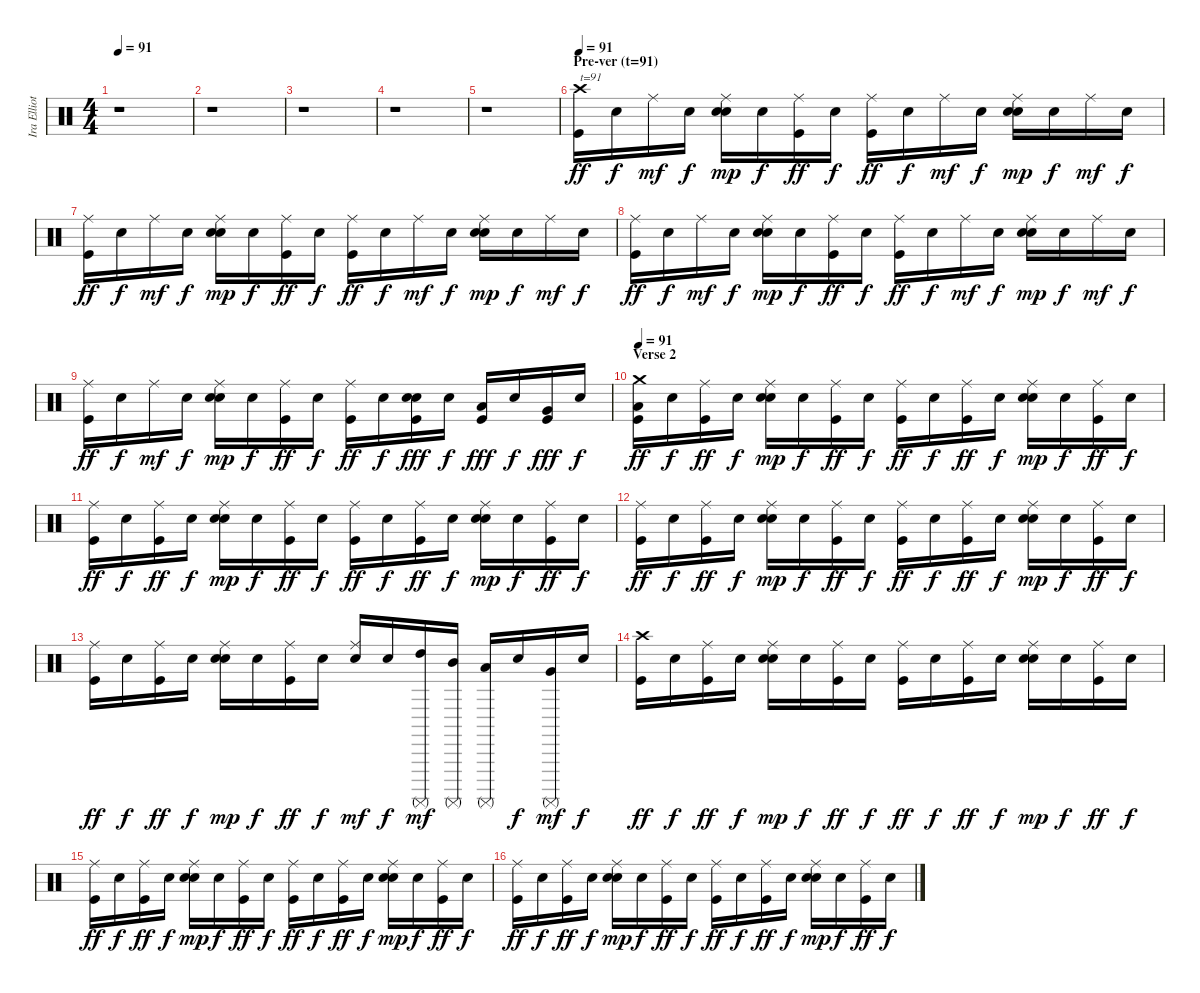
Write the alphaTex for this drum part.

\track ("Ira Elliot - Drums" "Ira Elliot") {instrument percussion}
\staff {score}
\articulation defaults
\ts (4 4)
\tempo 91
\clef neutral
\ks c
r.1{dy f} |
r.1 |
r.1 |
r.1 |
r.1 |
\section ("" "Pre-ver (t=91)")
\tempo 91
("Crash high (hit)" "Kick (hit)").16{txt "t=91" dy ff volume 16 balance 8} "Snare (hit)".16{dy f} "Ride (middle)".16{dy mf} "Snare (hit)".16{dy f} ("Ride (middle)" "Electric Snare (hit)" "Snare (hit) 2").16{dy mp} "Snare (hit)".16{dy f} ("Ride (middle)" "Kick (hit)").16{dy ff} "Snare (hit)".16{dy f} ("Ride (middle)" "Kick (hit)").16{dy ff} "Snare (hit)".16{dy f} "Ride (middle)".16{dy mf} "Snare (hit)".16{dy f} ("Ride (middle)" "Electric Snare (hit)" "Snare (hit) 2").16{dy mp} "Snare (hit)".16{dy f} "Ride (middle)".16{dy mf} "Snare (hit)".16{dy f} |
("Ride (middle)" "Kick (hit)").16{dy ff} "Snare (hit)".16{dy f} "Ride (middle)".16{dy mf} "Snare (hit)".16{dy f} ("Ride (middle)" "Electric Snare (hit)" "Snare (hit) 2").16{dy mp} "Snare (hit)".16{dy f} ("Ride (middle)" "Kick (hit)").16{dy ff} "Snare (hit)".16{dy f} ("Ride (middle)" "Kick (hit)").16{dy ff} "Snare (hit)".16{dy f} "Ride (middle)".16{dy mf} "Snare (hit)".16{dy f} ("Ride (middle)" "Electric Snare (hit)" "Snare (hit) 2").16{dy mp} "Snare (hit)".16{dy f} "Ride (middle)".16{dy mf} "Snare (hit)".16{dy f} |
("Ride (middle)" "Kick (hit)").16{dy ff} "Snare (hit)".16{dy f} "Ride (middle)".16{dy mf} "Snare (hit)".16{dy f} ("Ride (middle)" "Electric Snare (hit)" "Snare (hit) 2").16{dy mp} "Snare (hit)".16{dy f} ("Ride (middle)" "Kick (hit)").16{dy ff} "Snare (hit)".16{dy f} ("Ride (middle)" "Kick (hit)").16{dy ff} "Snare (hit)".16{dy f} "Ride (middle)".16{dy mf} "Snare (hit)".16{dy f} ("Ride (middle)" "Electric Snare (hit)" "Snare (hit) 2").16{dy mp} "Snare (hit)".16{dy f} "Ride (middle)".16{dy mf} "Snare (hit)".16{dy f} |
("Ride (middle)" "Kick (hit)").16{dy ff} "Snare (hit)".16{dy f} "Ride (middle)".16{dy mf} "Snare (hit)".16{dy f} ("Ride (middle)" "Electric Snare (hit)" "Snare (hit) 2").16{dy mp} "Snare (hit)".16{dy f} ("Ride (middle)" "Kick (hit)").16{dy ff} "Snare (hit)".16{dy f} ("Ride (middle)" "Kick (hit)").16{dy ff} "Snare (hit)".16{dy f} ("Electric Snare (hit)" "Snare (hit) 2" "Kick (hit)").16{dy fff} "Snare (hit)".16{dy f} ("Low Tom (hit)" "Kick (hit)").16{dy fff} "Snare (hit)".16{dy f} ("Very Low Tom (hit)" "Kick (hit)").16{dy fff} "Snare (hit)".16{dy f} |
\section ("" "Verse 2")
\tempo 91
("Crash medium (hit)" "Low Floor Tom (hit)" "Kick (hit)").16{dy ff volume 16 balance 8} "Snare (hit)".16{dy f} ("Ride (middle)" "Kick (hit)").16{dy ff} "Snare (hit)".16{dy f} ("Ride (middle)" "Electric Snare (hit)" "Snare (hit) 2").16{dy mp} "Snare (hit)".16{dy f} ("Ride (middle)" "Kick (hit)").16{dy ff} "Snare (hit)".16{dy f} ("Ride (middle)" "Kick (hit)").16{dy ff} "Snare (hit)".16{dy f} ("Ride (middle)" "Kick (hit)").16{dy ff} "Snare (hit)".16{dy f} ("Ride (middle)" "Electric Snare (hit)" "Snare (hit) 2").16{dy mp} "Snare (hit)".16{dy f} ("Ride (middle)" "Kick (hit)").16{dy ff} "Snare (hit)".16{dy f} |
("Ride (middle)" "Kick (hit)").16{dy ff} "Snare (hit)".16{dy f} ("Ride (middle)" "Kick (hit)").16{dy ff} "Snare (hit)".16{dy f} ("Ride (middle)" "Electric Snare (hit)" "Snare (hit) 2").16{dy mp} "Snare (hit)".16{dy f} ("Ride (middle)" "Kick (hit)").16{dy ff} "Snare (hit)".16{dy f} ("Ride (middle)" "Kick (hit)").16{dy ff} "Snare (hit)".16{dy f} ("Ride (middle)" "Kick (hit)").16{dy ff} "Snare (hit)".16{dy f} ("Ride (middle)" "Electric Snare (hit)" "Snare (hit) 2").16{dy mp} "Snare (hit)".16{dy f} ("Ride (middle)" "Kick (hit)").16{dy ff} "Snare (hit)".16{dy f} |
("Ride (middle)" "Kick (hit)").16{dy ff} "Snare (hit)".16{dy f} ("Ride (middle)" "Kick (hit)").16{dy ff} "Snare (hit)".16{dy f} ("Ride (middle)" "Electric Snare (hit)" "Snare (hit) 2").16{dy mp} "Snare (hit)".16{dy f} ("Ride (middle)" "Kick (hit)").16{dy ff} "Snare (hit)".16{dy f} ("Ride (middle)" "Kick (hit)").16{dy ff} "Snare (hit)".16{dy f} ("Ride (middle)" "Kick (hit)").16{dy ff} "Snare (hit)".16{dy f} ("Ride (middle)" "Electric Snare (hit)" "Snare (hit) 2").16{dy mp} "Snare (hit)".16{dy f} ("Ride (middle)" "Kick (hit)").16{dy ff} "Snare (hit)".16{dy f} |
("Ride (middle)" "Kick (hit)").16{dy ff} "Snare (hit)".16{dy f} ("Ride (middle)" "Kick (hit)").16{dy ff} "Snare (hit)".16{dy f} ("Ride (middle)" "Electric Snare (hit)" "Snare (hit) 2").16{dy mp} "Snare (hit)".16{dy f} ("Ride (middle)" "Kick (hit)").16{dy ff} "Snare (hit)".16{dy f} ("Ride (middle)" "Electric Snare (hit)").16{dy mf} "Snare (hit)".16{dy f} ("High Tom (hit)" "Surdo (mute)").16{dy mf} ("Mid Tom (hit)" "Surdo (mute)").16 ("Low Tom (hit)" "Surdo (mute)").16 "Snare (hit)".16{dy f} ("Very Low Tom (hit)" "Surdo (mute)").16{dy mf} "Snare (hit)".16{dy f} |
("Crash high (hit)" "Kick (hit)").16{dy ff} "Snare (hit)".16{dy f} ("Ride (middle)" "Kick (hit)").16{dy ff} "Snare (hit)".16{dy f} ("Ride (middle)" "Electric Snare (hit)" "Snare (hit) 2").16{dy mp} "Snare (hit)".16{dy f} ("Ride (middle)" "Kick (hit)").16{dy ff} "Snare (hit)".16{dy f} ("Ride (middle)" "Kick (hit)").16{dy ff} "Snare (hit)".16{dy f} ("Ride (middle)" "Kick (hit)").16{dy ff} "Snare (hit)".16{dy f} ("Ride (middle)" "Electric Snare (hit)" "Snare (hit) 2").16{dy mp} "Snare (hit)".16{dy f} ("Ride (middle)" "Kick (hit)").16{dy ff} "Snare (hit)".16{dy f} |
("Ride (middle)" "Kick (hit)").16{dy ff} "Snare (hit)".16{dy f} ("Ride (middle)" "Kick (hit)").16{dy ff} "Snare (hit)".16{dy f} ("Ride (middle)" "Electric Snare (hit)" "Snare (hit) 2").16{dy mp} "Snare (hit)".16{dy f} ("Ride (middle)" "Kick (hit)").16{dy ff} "Snare (hit)".16{dy f} ("Ride (middle)" "Kick (hit)").16{dy ff} "Snare (hit)".16{dy f} ("Ride (middle)" "Kick (hit)").16{dy ff} "Snare (hit)".16{dy f} ("Ride (middle)" "Electric Snare (hit)" "Snare (hit) 2").16{dy mp} "Snare (hit)".16{dy f} ("Ride (middle)" "Kick (hit)").16{dy ff} "Snare (hit)".16{dy f} |
("Ride (middle)" "Kick (hit)").16{dy ff} "Snare (hit)".16{dy f} ("Ride (middle)" "Kick (hit)").16{dy ff} "Snare (hit)".16{dy f} ("Ride (middle)" "Electric Snare (hit)" "Snare (hit) 2").16{dy mp} "Snare (hit)".16{dy f} ("Ride (middle)" "Kick (hit)").16{dy ff} "Snare (hit)".16{dy f} ("Ride (middle)" "Kick (hit)").16{dy ff} "Snare (hit)".16{dy f} ("Ride (middle)" "Kick (hit)").16{dy ff} "Snare (hit)".16{dy f} ("Ride (middle)" "Electric Snare (hit)" "Snare (hit) 2").16{dy mp} "Snare (hit)".16{dy f} ("Ride (middle)" "Kick (hit)").16{dy ff} "Snare (hit)".16{dy f}
